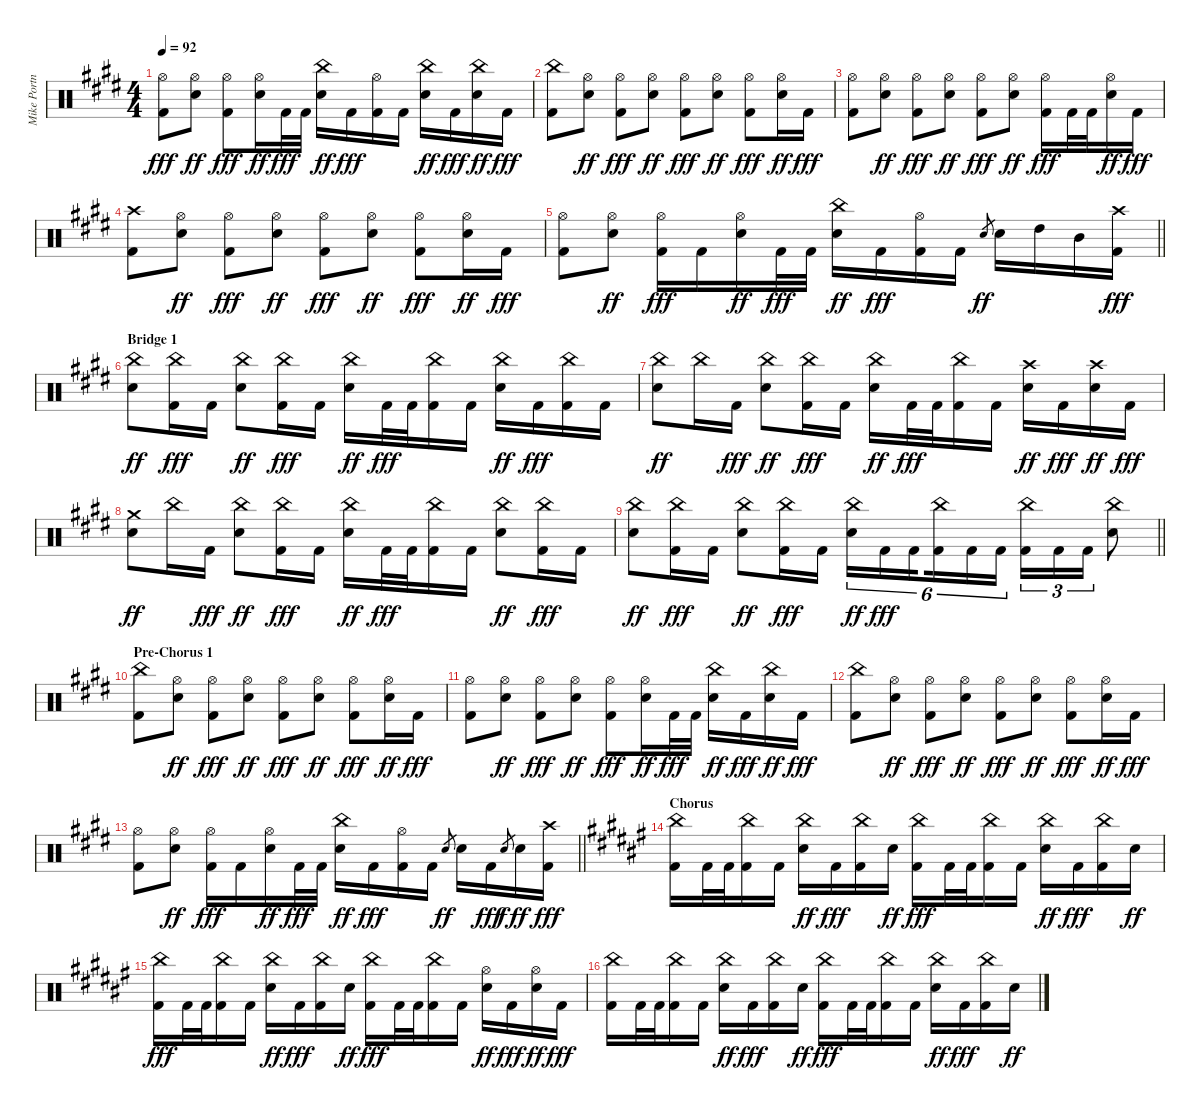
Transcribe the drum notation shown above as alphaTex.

\track ("Mike Portnoy" "Mike Portn") {instrument percussion}
\staff {score}
\articulation defaults
\ts (4 4)
\tempo 92
\clef neutral
\ks e
("Hi-Hat (open)" "Kick (hit) 2").8{dy fff} ("Hi-Hat (open)" "Electric Snare (hit)").8{dy ff} ("Hi-Hat (open)" "Kick (hit) 2").8{dy fff} ("Hi-Hat (open)" "Electric Snare (hit)").16{dy ff} "Kick (hit) 2".32{dy fff} "Kick (hit) 2".32 ("China (hit)" "Electric Snare (hit)").16{dy ff} "Kick (hit) 2".16{dy fff} ("Hi-Hat (open)" "Kick (hit) 2").16 "Kick (hit) 2".16 ("China (hit)" "Electric Snare (hit)").16{dy ff} "Kick (hit) 2".16{dy fff} ("China (hit)" "Electric Snare (hit)").16{dy ff} "Kick (hit) 2".16{dy fff} |
("China (hit)" "Kick (hit) 2").8 ("Hi-Hat (open)" "Electric Snare (hit)").8{dy ff} ("Hi-Hat (open)" "Kick (hit) 2").8{dy fff} ("Hi-Hat (open)" "Electric Snare (hit)").8{dy ff} ("Hi-Hat (open)" "Kick (hit) 2").8{dy fff} ("Hi-Hat (open)" "Electric Snare (hit)").8{dy ff} ("Hi-Hat (open)" "Kick (hit) 2").8{dy fff} ("Hi-Hat (open)" "Electric Snare (hit)").16{dy ff} "Kick (hit) 2".16{dy fff} |
("Hi-Hat (open)" "Kick (hit) 2").8 ("Hi-Hat (open)" "Electric Snare (hit)").8{dy ff} ("Hi-Hat (open)" "Kick (hit) 2").8{dy fff} ("Hi-Hat (open)" "Electric Snare (hit)").8{dy ff} ("Hi-Hat (open)" "Kick (hit) 2").8{dy fff} ("Hi-Hat (open)" "Electric Snare (hit)").8{dy ff} ("Hi-Hat (open)" "Kick (hit) 2").16{dy fff} "Kick (hit) 2".32 "Kick (hit) 2".32 ("Hi-Hat (open)" "Electric Snare (hit)").16{dy ff} "Kick (hit) 2".16{dy fff} |
("Crash high (hit)" "Kick (hit) 2").8 ("Hi-Hat (open)" "Electric Snare (hit)").8{dy ff} ("Hi-Hat (open)" "Kick (hit) 2").8{dy fff} ("Hi-Hat (open)" "Electric Snare (hit)").8{dy ff} ("Hi-Hat (open)" "Kick (hit) 2").8{dy fff} ("Hi-Hat (open)" "Electric Snare (hit)").8{dy ff} ("Hi-Hat (open)" "Kick (hit) 2").8{dy fff} ("Hi-Hat (open)" "Electric Snare (hit)").16{dy ff} "Kick (hit) 2".16{dy fff} |
\barLineRight lightlight
("Hi-Hat (open)" "Kick (hit) 2").8 ("Hi-Hat (open)" "Electric Snare (hit)").8{dy ff} ("Hi-Hat (open)" "Kick (hit) 2").16{dy fff} "Kick (hit) 2".16 ("Hi-Hat (open)" "Electric Snare (hit)").16{dy ff} "Kick (hit) 2".32{dy fff} "Kick (hit) 2".32 ("China (hit)" "Electric Snare (hit)").16{dy ff} "Kick (hit) 2".16{dy fff} ("Hi-Hat (open)" "Kick (hit) 2").16 "Kick (hit) 2".16 "Electric Snare (hit)".8{gr dy ff} "Electric Snare (hit)".16 "High Tom (hit)".16 "Mid Tom (hit)".16 ("Crash high (hit)" "Kick (hit) 2").16{dy fff} |
\section ("" "Bridge 1")
("China (hit)" "Electric Snare (hit)").8{dy ff} ("China (hit)" "Kick (hit) 2").16{dy fff} "Kick (hit) 2".16 ("China (hit)" "Electric Snare (hit)").8{dy ff} ("China (hit)" "Kick (hit) 2").16{dy fff} "Kick (hit) 2".16 ("China (hit)" "Electric Snare (hit)").16{dy ff} "Kick (hit) 2".32{dy fff} "Kick (hit) 2".32 ("China (hit)" "Kick (hit) 2").16 "Kick (hit) 2".16 ("China (hit)" "Electric Snare (hit)").16{dy ff} "Kick (hit) 2".16{dy fff} ("China (hit)" "Kick (hit) 2").16 "Kick (hit) 2".16 |
("China (hit)" "Electric Snare (hit)").8{dy ff} "China (hit)".16 "Kick (hit) 2".16{dy fff} ("China (hit)" "Electric Snare (hit)").8{dy ff} ("China (hit)" "Kick (hit) 2").16{dy fff} "Kick (hit) 2".16 ("China (hit)" "Electric Snare (hit)").16{dy ff} "Kick (hit) 2".32{dy fff} "Kick (hit) 2".32 ("China (hit)" "Kick (hit) 2").16 "Kick (hit) 2".16 ("Crash high (hit)" "Electric Snare (hit)").16{dy ff} "Kick (hit) 2".16{dy fff} ("Crash high (hit)" "Electric Snare (hit)").16{dy ff} "Kick (hit) 2".16{dy fff} |
("Crash medium (hit)" "Electric Snare (hit)").8{dy ff} "China (hit)".16 "Kick (hit) 2".16{dy fff} ("China (hit)" "Electric Snare (hit)").8{dy ff} ("China (hit)" "Kick (hit) 2").16{dy fff} "Kick (hit) 2".16 ("China (hit)" "Electric Snare (hit)").16{dy ff} "Kick (hit) 2".32{dy fff} "Kick (hit) 2".32 ("China (hit)" "Kick (hit) 2").16 "Kick (hit) 2".16 ("China (hit)" "Electric Snare (hit)").8{dy ff} ("China (hit)" "Kick (hit) 2").16{dy fff} "Kick (hit) 2".16 |
\barLineRight lightlight
("China (hit)" "Electric Snare (hit)").8{dy ff} ("China (hit)" "Kick (hit) 2").16{dy fff} "Kick (hit) 2".16 ("China (hit)" "Electric Snare (hit)").8{dy ff} ("China (hit)" "Kick (hit) 2").16{dy fff} "Kick (hit) 2".16 ("China (hit)" "Electric Snare (hit)").16{tu (6 4) dy ff} "Kick (hit) 2".16{tu (6 4) dy fff} "Kick (hit) 2".16{tu (6 4) beam splitsecondary} ("China (hit)" "Kick (hit) 2").16{tu (6 4)} "Kick (hit) 2".16{tu (6 4)} "Kick (hit) 2".16{tu (6 4)} ("China (hit)" "Kick (hit) 2").16{tu (3 2)} "Kick (hit) 2".16{tu (3 2)} "Kick (hit) 2".16{tu (3 2)} ("China (hit)" "Electric Snare (hit)").8 |
\section ("" "Pre-Chorus 1")
("China (hit)" "Kick (hit) 2").8 ("Hi-Hat (open)" "Electric Snare (hit)").8{dy ff} ("Hi-Hat (open)" "Kick (hit) 2").8{dy fff} ("Hi-Hat (open)" "Electric Snare (hit)").8{dy ff} ("Hi-Hat (open)" "Kick (hit) 2").8{dy fff} ("Hi-Hat (open)" "Electric Snare (hit)").8{dy ff} ("Hi-Hat (open)" "Kick (hit) 2").8{dy fff} ("Hi-Hat (open)" "Electric Snare (hit)").16{dy ff} "Kick (hit) 2".16{dy fff} |
("Hi-Hat (open)" "Kick (hit) 2").8 ("Hi-Hat (open)" "Electric Snare (hit)").8{dy ff} ("Hi-Hat (open)" "Kick (hit) 2").8{dy fff} ("Hi-Hat (open)" "Electric Snare (hit)").8{dy ff} ("Hi-Hat (open)" "Kick (hit) 2").8{dy fff} ("Hi-Hat (open)" "Electric Snare (hit)").16{dy ff} "Kick (hit) 2".32{dy fff} "Kick (hit) 2".32 ("China (hit)" "Electric Snare (hit)").16{dy ff} "Kick (hit) 2".16{dy fff} ("China (hit)" "Electric Snare (hit)").16{dy ff} "Kick (hit) 2".16{dy fff} |
("China (hit)" "Kick (hit) 2").8 ("Hi-Hat (open)" "Electric Snare (hit)").8{dy ff} ("Hi-Hat (open)" "Kick (hit) 2").8{dy fff} ("Hi-Hat (open)" "Electric Snare (hit)").8{dy ff} ("Hi-Hat (open)" "Kick (hit) 2").8{dy fff} ("Hi-Hat (open)" "Electric Snare (hit)").8{dy ff} ("Hi-Hat (open)" "Kick (hit) 2").8{dy fff} ("Hi-Hat (open)" "Electric Snare (hit)").16{dy ff} "Kick (hit) 2".16{dy fff} |
\barLineRight lightlight
("Hi-Hat (open)" "Kick (hit) 2").8 ("Hi-Hat (open)" "Electric Snare (hit)").8{dy ff} ("Hi-Hat (open)" "Kick (hit) 2").16{dy fff} "Kick (hit) 2".16 ("Hi-Hat (open)" "Electric Snare (hit)").16{dy ff} "Kick (hit) 2".32{dy fff} "Kick (hit) 2".32 ("China (hit)" "Electric Snare (hit)").16{dy ff} "Kick (hit) 2".16{dy fff} ("Hi-Hat (open)" "Kick (hit) 2").16 "Kick (hit) 2".16 "Electric Snare (hit)".8{gr dy ff} "Electric Snare (hit)".16 "Kick (hit) 2".16{dy fff} "Electric Snare (hit)".8{gr dy f} "Electric Snare (hit)".16{dy ff} ("Crash high (hit)" "Kick (hit) 2").16{dy fff} |
\section ("" "Chorus")
\ks f#
("China (hit)" "Kick (hit) 2").16 "Kick (hit) 2".32 "Kick (hit) 2".32 ("China (hit)" "Kick (hit) 2").16 "Kick (hit) 2".16 ("China (hit)" "Electric Snare (hit)").16{dy ff} "Kick (hit) 2".16{dy fff} ("China (hit)" "Kick (hit) 2").16 "Electric Snare (hit)".16{dy ff} ("China (hit)" "Kick (hit) 2").16{dy fff} "Kick (hit) 2".32 "Kick (hit) 2".32 ("China (hit)" "Kick (hit) 2").16 "Kick (hit) 2".16 ("China (hit)" "Electric Snare (hit)").16{dy ff} "Kick (hit) 2".16{dy fff} ("China (hit)" "Kick (hit) 2").16 "Electric Snare (hit)".16{dy ff} |
("China (hit)" "Kick (hit) 2").16{dy fff} "Kick (hit) 2".32 "Kick (hit) 2".32 ("China (hit)" "Kick (hit) 2").16 "Kick (hit) 2".16 ("China (hit)" "Electric Snare (hit)").16{dy ff} "Kick (hit) 2".16{dy fff} ("China (hit)" "Kick (hit) 2").16 "Electric Snare (hit)".16{dy ff} ("China (hit)" "Kick (hit) 2").16{dy fff} "Kick (hit) 2".32 "Kick (hit) 2".32 ("China (hit)" "Kick (hit) 2").16 "Kick (hit) 2".16 ("Hi-Hat (open)" "Electric Snare (hit)").16{dy ff} "Kick (hit) 2".16{dy fff} ("Hi-Hat (open)" "Electric Snare (hit)").16{dy ff} "Kick (hit) 2".16{dy fff} |
("China (hit)" "Kick (hit) 2").16 "Kick (hit) 2".32 "Kick (hit) 2".32 ("China (hit)" "Kick (hit) 2").16 "Kick (hit) 2".16 ("China (hit)" "Electric Snare (hit)").16{dy ff} "Kick (hit) 2".16{dy fff} ("China (hit)" "Kick (hit) 2").16 "Electric Snare (hit)".16{dy ff} ("China (hit)" "Kick (hit) 2").16{dy fff} "Kick (hit) 2".32 "Kick (hit) 2".32 ("China (hit)" "Kick (hit) 2").16 "Kick (hit) 2".16 ("China (hit)" "Electric Snare (hit)").16{dy ff} "Kick (hit) 2".16{dy fff} ("China (hit)" "Kick (hit) 2").16 "Electric Snare (hit)".16{dy ff}
